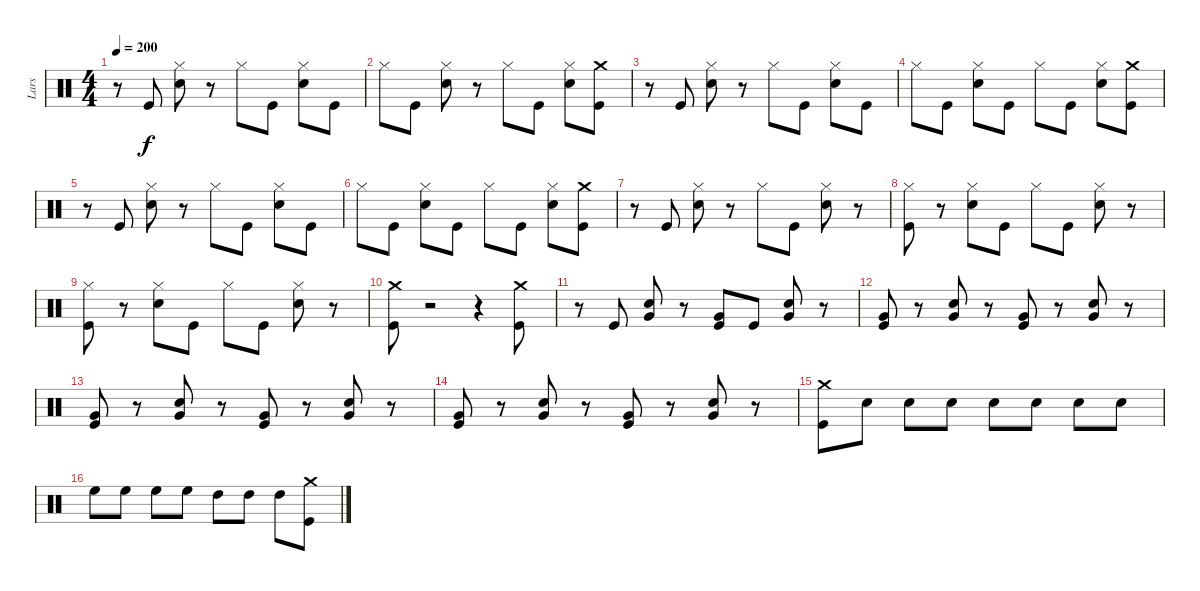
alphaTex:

\track ("Lars" "Lars") {instrument percussion}
\staff {score}
\articulation defaults
\ts (4 4)
\tempo 200
\clef neutral
\ks c
r.8{dy f} "Kick (hit)".8 ("Hi-Hat (closed)" "Snare (hit) 2").8 r.8 "Hi-Hat (closed)".8 "Kick (hit)".8 ("Snare (hit) 2" "Hi-Hat (closed)").8 "Kick (hit)".8 |
"Hi-Hat (closed)".8 "Kick (hit)".8 ("Hi-Hat (closed)" "Snare (hit) 2").8 r.8 "Hi-Hat (closed)".8 "Kick (hit)".8 ("Hi-Hat (closed)" "Snare (hit) 2").8 ("Crash medium (hit)" "Kick (hit)").8 |
r.8 "Kick (hit)".8 ("Hi-Hat (closed)" "Snare (hit) 2").8 r.8 "Hi-Hat (closed)".8 "Kick (hit)".8 ("Hi-Hat (closed)" "Snare (hit) 2").8 "Kick (hit)".8 |
"Hi-Hat (closed)".8 "Kick (hit)".8 ("Hi-Hat (closed)" "Snare (hit) 2").8 "Kick (hit)".8 "Hi-Hat (closed)".8 "Kick (hit)".8 ("Hi-Hat (closed)" "Snare (hit) 2").8 ("Crash medium (hit)" "Kick (hit)").8 |
r.8 "Kick (hit)".8 ("Hi-Hat (closed)" "Snare (hit) 2").8 r.8 "Hi-Hat (closed)".8 "Kick (hit)".8 ("Snare (hit) 2" "Hi-Hat (closed)").8 "Kick (hit)".8 |
"Hi-Hat (closed)".8 "Kick (hit)".8 ("Hi-Hat (closed)" "Snare (hit) 2").8 "Kick (hit)".8 "Hi-Hat (closed)".8 "Kick (hit)".8 ("Hi-Hat (closed)" "Snare (hit) 2").8 ("Crash medium (hit)" "Kick (hit)").8 |
r.8 "Kick (hit)".8 ("Hi-Hat (closed)" "Snare (hit) 2").8 r.8 "Hi-Hat (closed)".8 "Kick (hit)".8 ("Hi-Hat (closed)" "Snare (hit) 2").8 r.8 |
("Hi-Hat (closed)" "Kick (hit)").8 r.8 ("Hi-Hat (closed)" "Snare (hit) 2").8 "Kick (hit)".8 "Hi-Hat (closed)".8 "Kick (hit)".8 ("Hi-Hat (closed)" "Snare (hit) 2").8 r.8 |
("Hi-Hat (closed)" "Kick (hit)").8 r.8 ("Hi-Hat (closed)" "Snare (hit) 2").8 "Kick (hit)".8 "Hi-Hat (closed)".8 "Kick (hit)".8 ("Hi-Hat (closed)" "Snare (hit) 2").8 r.8 |
("Crash medium (hit)" "Kick (hit)").8 r.2 r.4 ("Crash medium (hit)" "Kick (hit)").8 |
r.8 "Kick (hit)".8 ("Snare (hit) 2" "Very Low Tom (hit)").8 r.8 ("Very Low Tom (hit)" "Kick (hit)").8 "Kick (hit)".8 ("Very Low Tom (hit)" "Snare (hit) 2").8 r.8 |
("Very Low Tom (hit)" "Kick (hit)").8 r.8 ("Snare (hit) 2" "Very Low Tom (hit)").8 r.8 ("Very Low Tom (hit)" "Kick (hit)").8 r.8 ("Very Low Tom (hit)" "Snare (hit) 2").8 r.8 |
("Very Low Tom (hit)" "Kick (hit)").8 r.8 ("Snare (hit) 2" "Very Low Tom (hit)").8 r.8 ("Very Low Tom (hit)" "Kick (hit)").8 r.8 ("Very Low Tom (hit)" "Snare (hit) 2").8 r.8 |
("Very Low Tom (hit)" "Kick (hit)").8 r.8 ("Snare (hit) 2" "Very Low Tom (hit)").8 r.8 ("Very Low Tom (hit)" "Kick (hit)").8 r.8 ("Very Low Tom (hit)" "Snare (hit) 2").8 r.8 |
("Crash medium (hit)" "Kick (hit)").8 "Snare (hit) 2".8 "Snare (hit) 2".8 "Snare (hit) 2".8 "Snare (hit) 2".8 "Snare (hit) 2".8 "Snare (hit) 2".8 "Snare (hit) 2".8 |
"High Floor Tom (hit)".8 "High Floor Tom (hit)".8 "High Floor Tom (hit)".8 "High Floor Tom (hit)".8 "High Tom (hit)".8 "High Tom (hit)".8 "High Tom (hit)".8 ("Crash medium (hit)" "Kick (hit)").8
